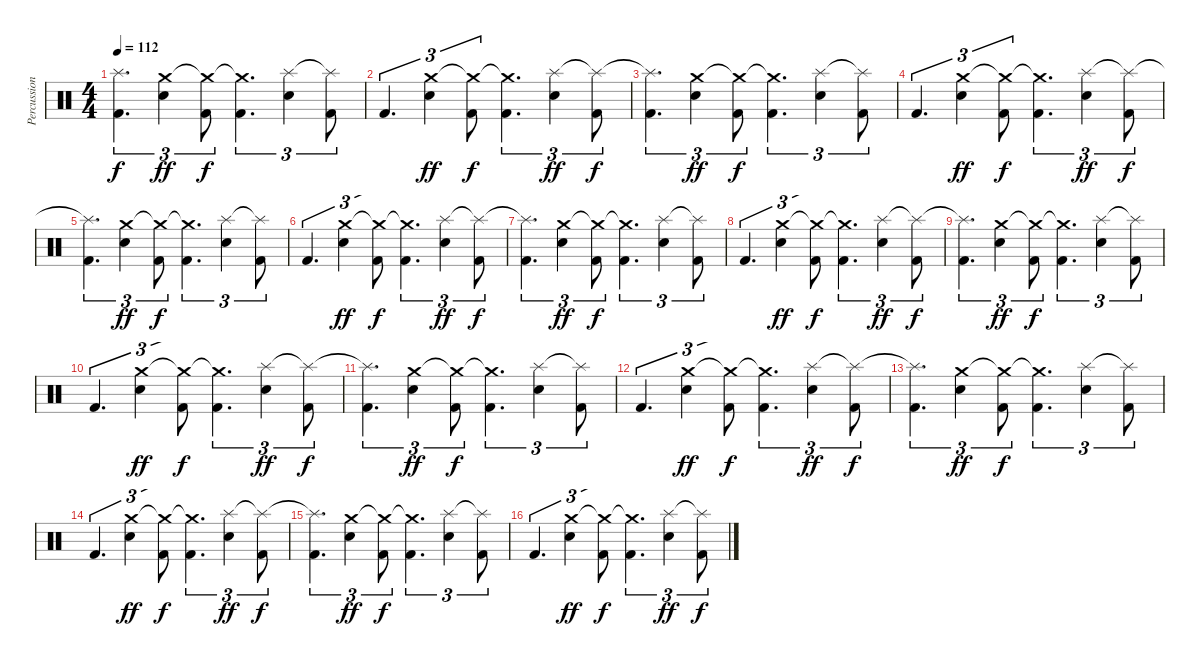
\track ("Percussioni" "Percussion") {instrument percussion}
\staff {score}
\articulation defaults
\ts (4 4)
\tempo 112
\clef neutral
\ks c
("Splash (hit)"{t} "Kick (hit) 2").4{d tu (3 2) dy f} ("Crash medium (hit)" "Snare (hit) 2").4{tu (3 2) dy ff} ("Crash medium (hit)"{t} "Kick (hit) 2").8{tu (3 2) dy f} ("Crash medium (hit)"{t} "Kick (hit) 2").4{d tu (3 2)} ("Splash (hit)" "Snare (hit) 2").4{tu (3 2)} ("Splash (hit)"{t} "Kick (hit) 2").8{tu (3 2)} |
"Kick (hit) 2".4{d tu (3 2)} ("Crash medium (hit)" "Snare (hit) 2").4{tu (3 2) dy ff} ("Crash medium (hit)"{t} "Kick (hit) 2").8{tu (3 2) dy f} ("Crash medium (hit)"{t} "Kick (hit) 2").4{d tu (3 2)} ("Splash (hit)" "Snare (hit) 2").4{tu (3 2) dy ff} ("Splash (hit)"{t} "Kick (hit) 2").8{tu (3 2) dy f} |
("Splash (hit)"{t} "Kick (hit) 2").4{d tu (3 2)} ("Crash medium (hit)" "Snare (hit) 2").4{tu (3 2) dy ff} ("Crash medium (hit)"{t} "Kick (hit) 2").8{tu (3 2) dy f} ("Crash medium (hit)"{t} "Kick (hit) 2").4{d tu (3 2)} ("Splash (hit)" "Snare (hit) 2").4{tu (3 2)} ("Splash (hit)"{t} "Kick (hit) 2").8{tu (3 2)} |
"Kick (hit) 2".4{d tu (3 2)} ("Crash medium (hit)" "Snare (hit) 2").4{tu (3 2) dy ff} ("Crash medium (hit)"{t} "Kick (hit) 2").8{tu (3 2) dy f} ("Crash medium (hit)"{t} "Kick (hit) 2").4{d tu (3 2)} ("Splash (hit)" "Snare (hit) 2").4{tu (3 2) dy ff} ("Splash (hit)"{t} "Kick (hit) 2").8{tu (3 2) dy f} |
("Splash (hit)"{t} "Kick (hit) 2").4{d tu (3 2)} ("Crash medium (hit)" "Snare (hit) 2").4{tu (3 2) dy ff} ("Crash medium (hit)"{t} "Kick (hit) 2").8{tu (3 2) dy f} ("Crash medium (hit)"{t} "Kick (hit) 2").4{d tu (3 2)} ("Splash (hit)" "Snare (hit) 2").4{tu (3 2)} ("Splash (hit)"{t} "Kick (hit) 2").8{tu (3 2)} |
"Kick (hit) 2".4{d tu (3 2)} ("Crash medium (hit)" "Snare (hit) 2").4{tu (3 2) dy ff} ("Crash medium (hit)"{t} "Kick (hit) 2").8{tu (3 2) dy f} ("Crash medium (hit)"{t} "Kick (hit) 2").4{d tu (3 2)} ("Splash (hit)" "Snare (hit) 2").4{tu (3 2) dy ff} ("Splash (hit)"{t} "Kick (hit) 2").8{tu (3 2) dy f} |
("Splash (hit)"{t} "Kick (hit) 2").4{d tu (3 2)} ("Crash medium (hit)" "Snare (hit) 2").4{tu (3 2) dy ff} ("Crash medium (hit)"{t} "Kick (hit) 2").8{tu (3 2) dy f} ("Crash medium (hit)"{t} "Kick (hit) 2").4{d tu (3 2)} ("Splash (hit)" "Snare (hit) 2").4{tu (3 2)} ("Splash (hit)"{t} "Kick (hit) 2").8{tu (3 2)} |
"Kick (hit) 2".4{d tu (3 2)} ("Crash medium (hit)" "Snare (hit) 2").4{tu (3 2) dy ff} ("Crash medium (hit)"{t} "Kick (hit) 2").8{tu (3 2) dy f} ("Crash medium (hit)"{t} "Kick (hit) 2").4{d tu (3 2)} ("Splash (hit)" "Snare (hit) 2").4{tu (3 2) dy ff} ("Splash (hit)"{t} "Kick (hit) 2").8{tu (3 2) dy f} |
("Splash (hit)"{t} "Kick (hit) 2").4{d tu (3 2)} ("Crash medium (hit)" "Snare (hit) 2").4{tu (3 2) dy ff} ("Crash medium (hit)"{t} "Kick (hit) 2").8{tu (3 2) dy f} ("Crash medium (hit)"{t} "Kick (hit) 2").4{d tu (3 2)} ("Splash (hit)" "Snare (hit) 2").4{tu (3 2)} ("Splash (hit)"{t} "Kick (hit) 2").8{tu (3 2)} |
"Kick (hit) 2".4{d tu (3 2)} ("Crash medium (hit)" "Snare (hit) 2").4{tu (3 2) dy ff} ("Crash medium (hit)"{t} "Kick (hit) 2").8{tu (3 2) dy f} ("Crash medium (hit)"{t} "Kick (hit) 2").4{d tu (3 2)} ("Splash (hit)" "Snare (hit) 2").4{tu (3 2) dy ff} ("Splash (hit)"{t} "Kick (hit) 2").8{tu (3 2) dy f} |
("Splash (hit)"{t} "Kick (hit) 2").4{d tu (3 2)} ("Crash medium (hit)" "Snare (hit) 2").4{tu (3 2) dy ff} ("Crash medium (hit)"{t} "Kick (hit) 2").8{tu (3 2) dy f} ("Crash medium (hit)"{t} "Kick (hit) 2").4{d tu (3 2)} ("Splash (hit)" "Snare (hit) 2").4{tu (3 2)} ("Splash (hit)"{t} "Kick (hit) 2").8{tu (3 2)} |
"Kick (hit) 2".4{d tu (3 2)} ("Crash medium (hit)" "Snare (hit) 2").4{tu (3 2) dy ff} ("Crash medium (hit)"{t} "Kick (hit) 2").8{tu (3 2) dy f} ("Crash medium (hit)"{t} "Kick (hit) 2").4{d tu (3 2)} ("Splash (hit)" "Snare (hit) 2").4{tu (3 2) dy ff} ("Splash (hit)"{t} "Kick (hit) 2").8{tu (3 2) dy f} |
("Splash (hit)"{t} "Kick (hit) 2").4{d tu (3 2)} ("Crash medium (hit)" "Snare (hit) 2").4{tu (3 2) dy ff} ("Crash medium (hit)"{t} "Kick (hit) 2").8{tu (3 2) dy f} ("Crash medium (hit)"{t} "Kick (hit) 2").4{d tu (3 2)} ("Splash (hit)" "Snare (hit) 2").4{tu (3 2)} ("Splash (hit)"{t} "Kick (hit) 2").8{tu (3 2)} |
"Kick (hit) 2".4{d tu (3 2)} ("Crash medium (hit)" "Snare (hit) 2").4{tu (3 2) dy ff} ("Crash medium (hit)"{t} "Kick (hit) 2").8{tu (3 2) dy f} ("Crash medium (hit)"{t} "Kick (hit) 2").4{d tu (3 2)} ("Splash (hit)" "Snare (hit) 2").4{tu (3 2) dy ff} ("Splash (hit)"{t} "Kick (hit) 2").8{tu (3 2) dy f} |
("Splash (hit)"{t} "Kick (hit) 2").4{d tu (3 2)} ("Crash medium (hit)" "Snare (hit) 2").4{tu (3 2) dy ff} ("Crash medium (hit)"{t} "Kick (hit) 2").8{tu (3 2) dy f} ("Crash medium (hit)"{t} "Kick (hit) 2").4{d tu (3 2)} ("Splash (hit)" "Snare (hit) 2").4{tu (3 2)} ("Splash (hit)"{t} "Kick (hit) 2").8{tu (3 2)} |
"Kick (hit) 2".4{d tu (3 2)} ("Crash medium (hit)" "Snare (hit) 2").4{tu (3 2) dy ff} ("Crash medium (hit)"{t} "Kick (hit) 2").8{tu (3 2) dy f} ("Crash medium (hit)"{t} "Kick (hit) 2").4{d tu (3 2)} ("Splash (hit)" "Snare (hit) 2").4{tu (3 2) dy ff} ("Splash (hit)"{t} "Kick (hit) 2").8{tu (3 2) dy f}
